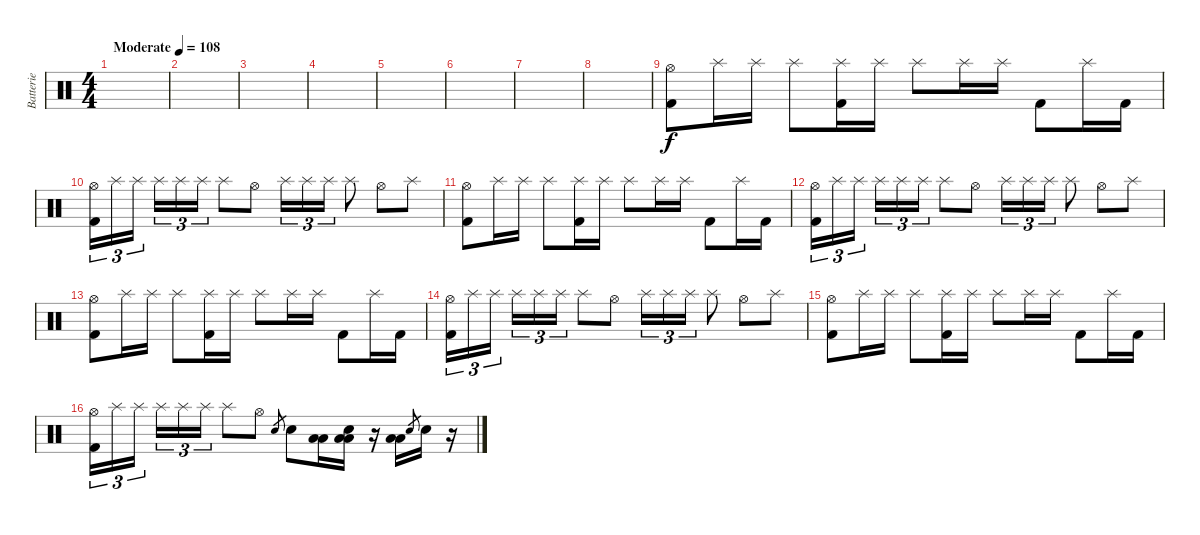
\track ("Batterie" "Batterie") {instrument percussion}
\staff {score}
\articulation defaults
\ts (4 4)
\tempo (108 "Moderate")
\clef neutral
\ks c
|
|
|
|
|
|
|
|
("Hi-Hat (open)" "Kick (hit) 2").8 "Splash (hit)".16 "Splash (hit)".16 "Splash (hit)".8 ("Splash (hit)" "Kick (hit) 2").16 "Splash (hit)".16 "Splash (hit)".8 "Splash (hit)".16 "Splash (hit)".16 "Kick (hit) 2".8 "Splash (hit)".16 "Kick (hit) 2".16 |
("Hi-Hat (open)" "Kick (hit) 2").16{tu (3 2)} "Splash (hit)".16{tu (3 2)} "Splash (hit)".16{tu (3 2) beam splitsecondary} "Splash (hit)".16{tu (3 2)} "Splash (hit)".16{tu (3 2)} "Splash (hit)".16{tu (3 2)} "Splash (hit)".8 "Hi-Hat (open)".8 "Splash (hit)".16{tu (3 2)} "Splash (hit)".16{tu (3 2)} "Splash (hit)".16{tu (3 2)} "Splash (hit)".8 "Hi-Hat (open)".8 "Splash (hit)".8 |
("Hi-Hat (open)" "Kick (hit) 2").8 "Splash (hit)".16 "Splash (hit)".16 "Splash (hit)".8 ("Splash (hit)" "Kick (hit) 2").16 "Splash (hit)".16 "Splash (hit)".8 "Splash (hit)".16 "Splash (hit)".16 "Kick (hit) 2".8 "Splash (hit)".16 "Kick (hit) 2".16 |
("Hi-Hat (open)" "Kick (hit) 2").16{tu (3 2)} "Splash (hit)".16{tu (3 2)} "Splash (hit)".16{tu (3 2) beam splitsecondary} "Splash (hit)".16{tu (3 2)} "Splash (hit)".16{tu (3 2)} "Splash (hit)".16{tu (3 2)} "Splash (hit)".8 "Hi-Hat (open)".8 "Splash (hit)".16{tu (3 2)} "Splash (hit)".16{tu (3 2)} "Splash (hit)".16{tu (3 2)} "Splash (hit)".8 "Hi-Hat (open)".8 "Splash (hit)".8 |
("Hi-Hat (open)" "Kick (hit) 2").8 "Splash (hit)".16 "Splash (hit)".16 "Splash (hit)".8 ("Splash (hit)" "Kick (hit) 2").16 "Splash (hit)".16 "Splash (hit)".8 "Splash (hit)".16 "Splash (hit)".16 "Kick (hit) 2".8 "Splash (hit)".16 "Kick (hit) 2".16 |
("Hi-Hat (open)" "Kick (hit) 2").16{tu (3 2)} "Splash (hit)".16{tu (3 2)} "Splash (hit)".16{tu (3 2) beam splitsecondary} "Splash (hit)".16{tu (3 2)} "Splash (hit)".16{tu (3 2)} "Splash (hit)".16{tu (3 2)} "Splash (hit)".8 "Hi-Hat (open)".8 "Splash (hit)".16{tu (3 2)} "Splash (hit)".16{tu (3 2)} "Splash (hit)".16{tu (3 2)} "Splash (hit)".8 "Hi-Hat (open)".8 "Splash (hit)".8 |
("Hi-Hat (open)" "Kick (hit) 2").8 "Splash (hit)".16 "Splash (hit)".16 "Splash (hit)".8 ("Splash (hit)" "Kick (hit) 2").16 "Splash (hit)".16 "Splash (hit)".8 "Splash (hit)".16 "Splash (hit)".16 "Kick (hit) 2".8 "Splash (hit)".16 "Kick (hit) 2".16 |
("Hi-Hat (open)" "Kick (hit) 2").16{tu (3 2)} "Splash (hit)".16{tu (3 2)} "Splash (hit)".16{tu (3 2) beam splitsecondary} "Splash (hit)".16{tu (3 2)} "Splash (hit)".16{tu (3 2)} "Splash (hit)".16{tu (3 2)} "Splash (hit)".8 "Hi-Hat (open)".8 "Electric Snare (hit)".8{gr} "Electric Snare (hit)".8 ("Low Tom (hit)" "Low Floor Tom (hit)").16 ("Snare (hit) 2" "Low Tom (hit)" "Low Floor Tom (hit)").16 r.16 ("Low Tom (hit)" "Low Floor Tom (hit)").16 "Electric Snare (hit)".8{gr} "Electric Snare (hit)".16 r.16
